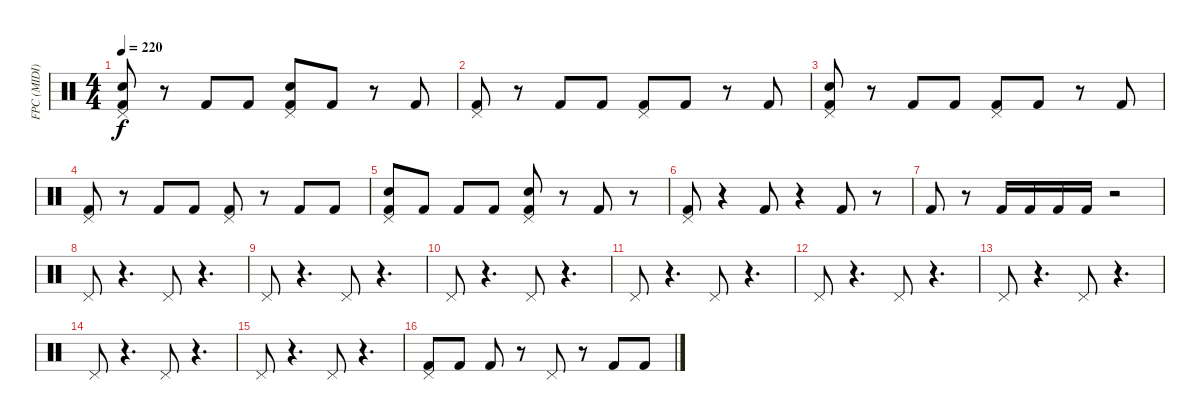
\track ("FPC (MIDI)" "FPC (MIDI)") {instrument percussion}
\staff {score}
\articulation defaults
\ts (4 4)
\tempo 220
\clef neutral
\ks c
("Pedal Hi-Hat (hit)" "Snare (hit) 2" "Kick (hit) 2").8{dy f} r.8 "Kick (hit) 2".8 "Kick (hit) 2".8 ("Kick (hit) 2" "Pedal Hi-Hat (hit)" "Snare (hit) 2").8 "Kick (hit) 2".8 r.8 "Kick (hit) 2".8 |
("Pedal Hi-Hat (hit)" "Kick (hit) 2").8 r.8 "Kick (hit) 2".8 "Kick (hit) 2".8 ("Pedal Hi-Hat (hit)" "Kick (hit) 2").8 "Kick (hit) 2".8 r.8 "Kick (hit) 2".8 |
("Pedal Hi-Hat (hit)" "Snare (hit) 2" "Kick (hit) 2").8 r.8 "Kick (hit) 2".8 "Kick (hit) 2".8 ("Kick (hit) 2" "Pedal Hi-Hat (hit)").8 "Kick (hit) 2".8 r.8 "Kick (hit) 2".8 |
("Kick (hit) 2" "Pedal Hi-Hat (hit)").8 r.8 "Kick (hit) 2".8 "Kick (hit) 2".8 ("Pedal Hi-Hat (hit)" "Kick (hit) 2").8 r.8 "Kick (hit) 2".8 "Kick (hit) 2".8 |
("Pedal Hi-Hat (hit)" "Snare (hit) 2" "Kick (hit) 2").8 "Kick (hit) 2".8 "Kick (hit) 2".8 "Kick (hit) 2".8 ("Kick (hit) 2" "Pedal Hi-Hat (hit)" "Snare (hit) 2").8 r.8 "Kick (hit) 2".8 r.8 |
("Pedal Hi-Hat (hit)" "Kick (hit) 2").8 r.4 "Kick (hit) 2".8 r.4 "Kick (hit) 2".8 r.8 |
"Kick (hit) 2".8 r.8 "Kick (hit) 2".16 "Kick (hit) 2".16 "Kick (hit) 2".16 "Kick (hit) 2".16 r.2 |
"Pedal Hi-Hat (hit)".8 r.4{d} "Pedal Hi-Hat (hit)".8 r.4{d} |
"Pedal Hi-Hat (hit)".8 r.4{d} "Pedal Hi-Hat (hit)".8 r.4{d} |
"Pedal Hi-Hat (hit)".8 r.4{d} "Pedal Hi-Hat (hit)".8 r.4{d} |
"Pedal Hi-Hat (hit)".8 r.4{d} "Pedal Hi-Hat (hit)".8 r.4{d} |
"Pedal Hi-Hat (hit)".8 r.4{d} "Pedal Hi-Hat (hit)".8 r.4{d} |
"Pedal Hi-Hat (hit)".8 r.4{d} "Pedal Hi-Hat (hit)".8 r.4{d} |
"Pedal Hi-Hat (hit)".8 r.4{d} "Pedal Hi-Hat (hit)".8 r.4{d} |
"Pedal Hi-Hat (hit)".8 r.4{d} "Pedal Hi-Hat (hit)".8 r.4{d} |
("Kick (hit) 2" "Pedal Hi-Hat (hit)").8 "Kick (hit) 2".8 "Kick (hit) 2".8 r.8 "Pedal Hi-Hat (hit)".8 r.8 "Kick (hit) 2".8 "Kick (hit) 2".8
